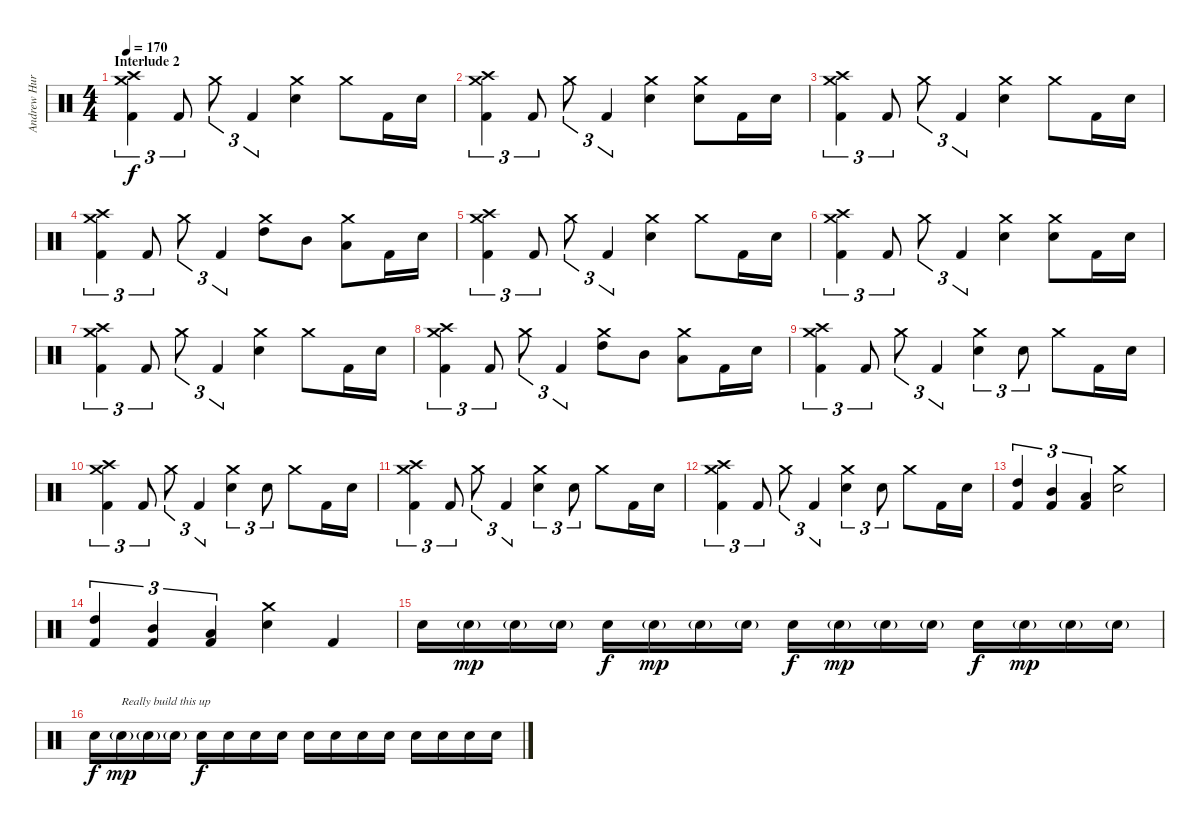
\track ("Andrew Hurley (Drums)" "Andrew Hur") {instrument percussion}
\staff {score}
\articulation defaults
\ts (4 4)
\section ("" "Interlude 2")
\tempo 170
\clef neutral
\ks c
("Crash medium (hit)" "Crash high (hit)" "Kick (hit) 2").4{tu (3 2) dy f} "Kick (hit) 2".8{tu (3 2)} "Crash medium (hit)".8{tu (3 2)} "Kick (hit) 2".4{tu (3 2)} ("Crash medium (hit)" "Electric Snare (hit)").4 "Crash medium (hit)".8 "Kick (hit) 2".16 "Electric Snare (hit)".16 |
("Crash medium (hit)" "Crash high (hit)" "Kick (hit) 2").4{tu (3 2)} "Kick (hit) 2".8{tu (3 2)} "Crash medium (hit)".8{tu (3 2)} "Kick (hit) 2".4{tu (3 2)} ("Crash medium (hit)" "Electric Snare (hit)").4 ("Crash medium (hit)" "Electric Snare (hit)").8 "Kick (hit) 2".16 "Electric Snare (hit)".16 |
("Crash medium (hit)" "Crash high (hit)" "Kick (hit) 2").4{tu (3 2)} "Kick (hit) 2".8{tu (3 2)} "Crash medium (hit)".8{tu (3 2)} "Kick (hit) 2".4{tu (3 2)} ("Crash medium (hit)" "Electric Snare (hit)").4 "Crash medium (hit)".8 "Kick (hit) 2".16 "Electric Snare (hit)".16 |
("Crash medium (hit)" "Crash high (hit)" "Kick (hit) 2").4{tu (3 2)} "Kick (hit) 2".8{tu (3 2)} "Crash medium (hit)".8{tu (3 2)} "Kick (hit) 2".4{tu (3 2)} ("Crash medium (hit)" "High Tom (hit)").8 "Mid Tom (hit)".8 ("Crash medium (hit)" "Low Tom (hit)").8 "Kick (hit) 2".16 "Electric Snare (hit)".16 |
("Crash medium (hit)" "Crash high (hit)" "Kick (hit) 2").4{tu (3 2)} "Kick (hit) 2".8{tu (3 2)} "Crash medium (hit)".8{tu (3 2)} "Kick (hit) 2".4{tu (3 2)} ("Crash medium (hit)" "Electric Snare (hit)").4 "Crash medium (hit)".8 "Kick (hit) 2".16 "Electric Snare (hit)".16 |
("Crash medium (hit)" "Crash high (hit)" "Kick (hit) 2").4{tu (3 2)} "Kick (hit) 2".8{tu (3 2)} "Crash medium (hit)".8{tu (3 2)} "Kick (hit) 2".4{tu (3 2)} ("Crash medium (hit)" "Electric Snare (hit)").4 ("Crash medium (hit)" "Electric Snare (hit)").8 "Kick (hit) 2".16 "Electric Snare (hit)".16 |
("Crash medium (hit)" "Crash high (hit)" "Kick (hit) 2").4{tu (3 2)} "Kick (hit) 2".8{tu (3 2)} "Crash medium (hit)".8{tu (3 2)} "Kick (hit) 2".4{tu (3 2)} ("Crash medium (hit)" "Electric Snare (hit)").4 "Crash medium (hit)".8 "Kick (hit) 2".16 "Electric Snare (hit)".16 |
("Crash medium (hit)" "Crash high (hit)" "Kick (hit) 2").4{tu (3 2)} "Kick (hit) 2".8{tu (3 2)} "Crash medium (hit)".8{tu (3 2)} "Kick (hit) 2".4{tu (3 2)} ("Crash medium (hit)" "High Tom (hit)").8 "Mid Tom (hit)".8 ("Crash medium (hit)" "Low Tom (hit)").8 "Kick (hit) 2".16 "Electric Snare (hit)".16 |
("Crash medium (hit)" "Crash high (hit)" "Kick (hit) 2").4{tu (3 2)} "Kick (hit) 2".8{tu (3 2)} "Crash medium (hit)".8{tu (3 2)} "Kick (hit) 2".4{tu (3 2)} ("Crash medium (hit)" "Electric Snare (hit)").4{tu (3 2)} "Electric Snare (hit)".8{tu (3 2)} "Crash medium (hit)".8 "Kick (hit) 2".16 "Electric Snare (hit)".16 |
("Crash medium (hit)" "Crash high (hit)" "Kick (hit) 2").4{tu (3 2)} "Kick (hit) 2".8{tu (3 2)} "Crash medium (hit)".8{tu (3 2)} "Kick (hit) 2".4{tu (3 2)} ("Crash medium (hit)" "Electric Snare (hit)").4{tu (3 2)} "Electric Snare (hit)".8{tu (3 2)} "Crash medium (hit)".8 "Kick (hit) 2".16 "Electric Snare (hit)".16 |
("Crash medium (hit)" "Crash high (hit)" "Kick (hit) 2").4{tu (3 2)} "Kick (hit) 2".8{tu (3 2)} "Crash medium (hit)".8{tu (3 2)} "Kick (hit) 2".4{tu (3 2)} ("Crash medium (hit)" "Electric Snare (hit)").4{tu (3 2)} "Electric Snare (hit)".8{tu (3 2)} "Crash medium (hit)".8 "Kick (hit) 2".16 "Electric Snare (hit)".16 |
("Crash medium (hit)" "Crash high (hit)" "Kick (hit) 2").4{tu (3 2)} "Kick (hit) 2".8{tu (3 2)} "Crash medium (hit)".8{tu (3 2)} "Kick (hit) 2".4{tu (3 2)} ("Crash medium (hit)" "Electric Snare (hit)").4{tu (3 2)} "Electric Snare (hit)".8{tu (3 2)} "Crash medium (hit)".8 "Kick (hit) 2".16 "Electric Snare (hit)".16 |
("High Tom (hit)" "Kick (hit) 2").4{tu (3 2)} ("Mid Tom (hit)" "Kick (hit) 2").4{tu (3 2)} ("Low Tom (hit)" "Kick (hit) 2").4{tu (3 2)} ("Crash medium (hit)" "Electric Snare (hit)").2 |
("High Tom (hit)" "Kick (hit) 2").4{tu (3 2)} ("Mid Tom (hit)" "Kick (hit) 2").4{tu (3 2)} ("Low Tom (hit)" "Kick (hit) 2").4{tu (3 2)} ("Crash medium (hit)" "Electric Snare (hit)").4 "Kick (hit) 2".4 |
"Electric Snare (hit)".16 "Electric Snare (hit)"{g}.16{dy mp} "Electric Snare (hit)"{g}.16 "Electric Snare (hit)"{g}.16 "Electric Snare (hit)".16{dy f} "Electric Snare (hit)"{g}.16{dy mp} "Electric Snare (hit)"{g}.16 "Electric Snare (hit)"{g}.16 "Electric Snare (hit)".16{dy f} "Electric Snare (hit)"{g}.16{dy mp} "Electric Snare (hit)"{g}.16 "Electric Snare (hit)"{g}.16 "Electric Snare (hit)".16{dy f} "Electric Snare (hit)"{g}.16{dy mp} "Electric Snare (hit)"{g}.16 "Electric Snare (hit)"{g}.16 |
"Electric Snare (hit)".16{dy f} "Electric Snare (hit)"{g}.16{txt "Really build this up" dy mp} "Electric Snare (hit)"{g}.16 "Electric Snare (hit)"{g}.16 "Electric Snare (hit)".16{dy f} "Electric Snare (hit)".16 "Electric Snare (hit)".16 "Electric Snare (hit)".16 "Electric Snare (hit)".16 "Electric Snare (hit)".16 "Electric Snare (hit)".16 "Electric Snare (hit)".16 "Electric Snare (hit)".16 "Electric Snare (hit)".16 "Electric Snare (hit)".16 "Electric Snare (hit)".16
